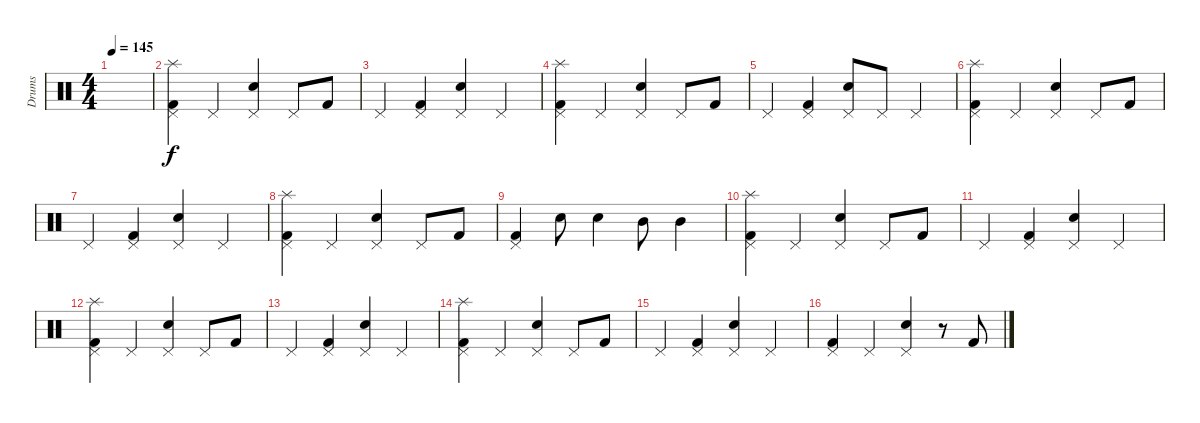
\track ("Drums" "Drums") {instrument percussion}
\staff {score}
\articulation defaults
\ts (4 4)
\tempo 145
\clef neutral
\ks c
|
("Splash (hit)" "Pedal Hi-Hat (hit)" "Kick (hit) 2").4 "Pedal Hi-Hat (hit)".4 ("Pedal Hi-Hat (hit)" "Snare (hit) 2").4 "Pedal Hi-Hat (hit)".8 "Kick (hit) 2".8 |
"Pedal Hi-Hat (hit)".4 ("Pedal Hi-Hat (hit)" "Kick (hit) 2").4 ("Pedal Hi-Hat (hit)" "Snare (hit) 2").4 "Pedal Hi-Hat (hit)".4 |
("Splash (hit)" "Pedal Hi-Hat (hit)" "Kick (hit) 2").4 "Pedal Hi-Hat (hit)".4 ("Pedal Hi-Hat (hit)" "Snare (hit) 2").4 "Pedal Hi-Hat (hit)".8 "Kick (hit) 2".8 |
"Pedal Hi-Hat (hit)".4 ("Pedal Hi-Hat (hit)" "Kick (hit) 2").4 ("Pedal Hi-Hat (hit)" "Snare (hit) 2").8 "Pedal Hi-Hat (hit)".8 "Pedal Hi-Hat (hit)".4 |
("Splash (hit)" "Pedal Hi-Hat (hit)" "Kick (hit) 2").4 "Pedal Hi-Hat (hit)".4 ("Pedal Hi-Hat (hit)" "Snare (hit) 2").4 "Pedal Hi-Hat (hit)".8 "Kick (hit) 2".8 |
"Pedal Hi-Hat (hit)".4 ("Pedal Hi-Hat (hit)" "Kick (hit) 2").4 ("Pedal Hi-Hat (hit)" "Snare (hit) 2").4 "Pedal Hi-Hat (hit)".4 |
("Splash (hit)" "Pedal Hi-Hat (hit)" "Kick (hit) 2").4 "Pedal Hi-Hat (hit)".4 ("Pedal Hi-Hat (hit)" "Snare (hit) 2").4 "Pedal Hi-Hat (hit)".8 "Kick (hit) 2".8 |
("Pedal Hi-Hat (hit)" "Kick (hit) 2").4 "Snare (hit) 2".8 "Snare (hit) 2".4 "Mid Tom (hit)".8 "Mid Tom (hit)".4 |
("Splash (hit)" "Pedal Hi-Hat (hit)" "Kick (hit) 2").4 "Pedal Hi-Hat (hit)".4 ("Pedal Hi-Hat (hit)" "Snare (hit) 2").4 "Pedal Hi-Hat (hit)".8 "Kick (hit) 2".8 |
"Pedal Hi-Hat (hit)".4 ("Pedal Hi-Hat (hit)" "Kick (hit) 2").4 ("Pedal Hi-Hat (hit)" "Snare (hit) 2").4 "Pedal Hi-Hat (hit)".4 |
("Splash (hit)" "Pedal Hi-Hat (hit)" "Kick (hit) 2").4 "Pedal Hi-Hat (hit)".4 ("Pedal Hi-Hat (hit)" "Snare (hit) 2").4 "Pedal Hi-Hat (hit)".8 "Kick (hit) 2".8 |
"Pedal Hi-Hat (hit)".4 ("Pedal Hi-Hat (hit)" "Kick (hit) 2").4 ("Pedal Hi-Hat (hit)" "Snare (hit) 2").4 "Pedal Hi-Hat (hit)".4 |
("Splash (hit)" "Pedal Hi-Hat (hit)" "Kick (hit) 2").4 "Pedal Hi-Hat (hit)".4 ("Pedal Hi-Hat (hit)" "Snare (hit) 2").4 "Pedal Hi-Hat (hit)".8 "Kick (hit) 2".8 |
"Pedal Hi-Hat (hit)".4 ("Pedal Hi-Hat (hit)" "Kick (hit) 2").4 ("Pedal Hi-Hat (hit)" "Snare (hit) 2").4 "Pedal Hi-Hat (hit)".4 |
("Pedal Hi-Hat (hit)" "Kick (hit) 2").4 "Pedal Hi-Hat (hit)".4 ("Pedal Hi-Hat (hit)" "Snare (hit) 2").4 r.8 "Kick (hit) 2".8
